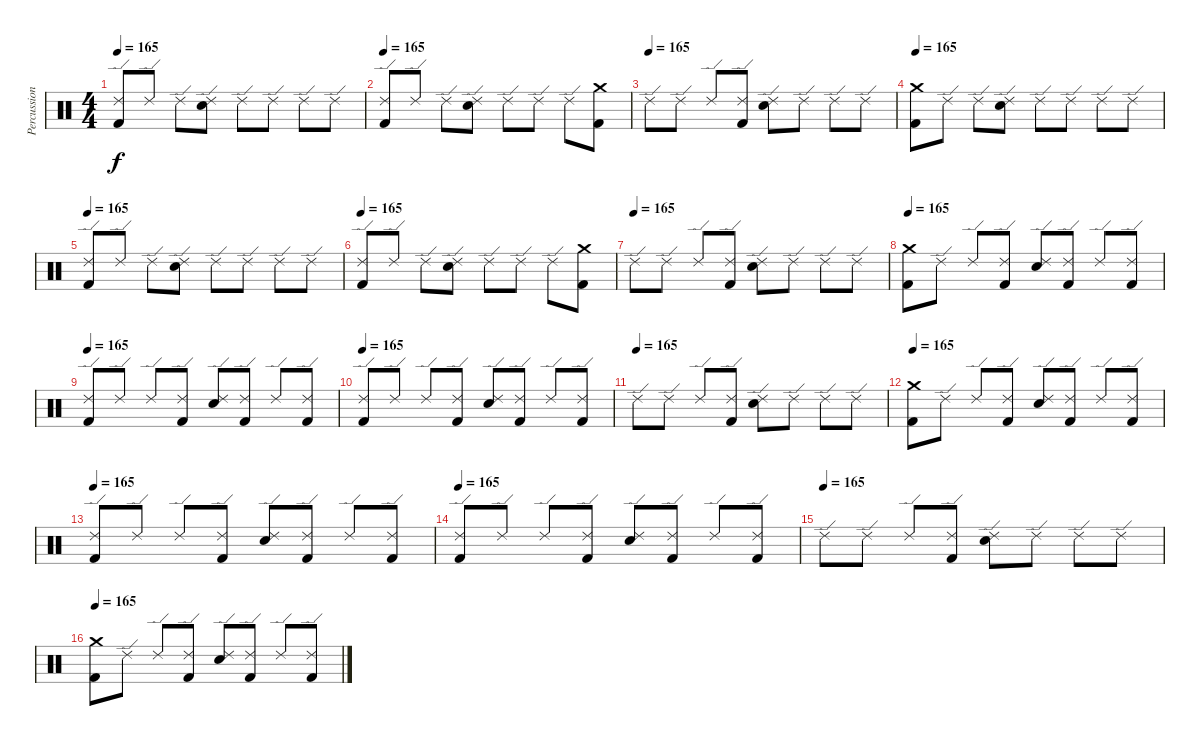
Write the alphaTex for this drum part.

\track ("Percussion" "Percussion") {instrument percussion}
\staff {score}
\articulation defaults
\ts (4 4)
\tempo 165
\clef neutral
\ks c
("Ride (edge) 2" "Kick (hit) 2").8{dy f} "Ride (edge) 2".8 "Ride (edge) 2".8 ("Ride (edge) 2" "Electric Snare (hit)").8 "Ride (edge) 2".8 "Ride (edge) 2".8 "Ride (edge) 2".8 "Ride (edge) 2".8 |
\tempo 165
("Ride (edge) 2" "Kick (hit) 2").8 "Ride (edge) 2".8 "Ride (edge) 2".8 ("Ride (edge) 2" "Electric Snare (hit)").8 "Ride (edge) 2".8 "Ride (edge) 2".8 "Ride (edge) 2".8 ("Crash medium (hit)" "Kick (hit) 2").8 |
\tempo (165)
"Ride (edge) 2".8 "Ride (edge) 2".8 "Ride (edge) 2".8 ("Ride (edge) 2" "Kick (hit) 2").8 ("Ride (edge) 2" "Electric Snare (hit)").8 "Ride (edge) 2".8 "Ride (edge) 2".8 "Ride (edge) 2".8 |
\tempo 165
("Crash medium (hit)" "Kick (hit) 2").8 "Ride (edge) 2".8 "Ride (edge) 2".8 ("Ride (edge) 2" "Electric Snare (hit)").8 "Ride (edge) 2".8 "Ride (edge) 2".8 "Ride (edge) 2".8 "Ride (edge) 2".8 |
\tempo 165
("Ride (edge) 2" "Kick (hit) 2").8 "Ride (edge) 2".8 "Ride (edge) 2".8 ("Ride (edge) 2" "Electric Snare (hit)").8 "Ride (edge) 2".8 "Ride (edge) 2".8 "Ride (edge) 2".8 "Ride (edge) 2".8 |
\tempo 165
("Ride (edge) 2" "Kick (hit) 2").8 "Ride (edge) 2".8 "Ride (edge) 2".8 ("Ride (edge) 2" "Electric Snare (hit)").8 "Ride (edge) 2".8 "Ride (edge) 2".8 "Ride (edge) 2".8 ("Crash medium (hit)" "Kick (hit) 2").8 |
\tempo (165)
"Ride (edge) 2".8 "Ride (edge) 2".8 "Ride (edge) 2".8 ("Ride (edge) 2" "Kick (hit) 2").8 ("Ride (edge) 2" "Electric Snare (hit)").8 "Ride (edge) 2".8 "Ride (edge) 2".8 "Ride (edge) 2".8 |
\tempo 165
("Crash medium (hit)" "Kick (hit) 2").8 "Ride (edge) 2".8 "Ride (edge) 2".8 ("Ride (edge) 2" "Kick (hit) 2").8 ("Ride (edge) 2" "Electric Snare (hit)").8 ("Ride (edge) 2" "Kick (hit) 2").8 "Ride (edge) 2".8 ("Ride (edge) 2" "Kick (hit) 2").8 |
\tempo 165
("Ride (edge) 2" "Kick (hit) 2").8 "Ride (edge) 2".8 "Ride (edge) 2".8 ("Ride (edge) 2" "Kick (hit) 2").8 ("Ride (edge) 2" "Electric Snare (hit)").8 ("Ride (edge) 2" "Kick (hit) 2").8 "Ride (edge) 2".8 ("Ride (edge) 2" "Kick (hit) 2").8 |
\tempo 165
("Ride (edge) 2" "Kick (hit) 2").8 "Ride (edge) 2".8 "Ride (edge) 2".8 ("Ride (edge) 2" "Kick (hit) 2").8 ("Ride (edge) 2" "Electric Snare (hit)").8 ("Ride (edge) 2" "Kick (hit) 2").8 "Ride (edge) 2".8 ("Ride (edge) 2" "Kick (hit) 2").8 |
\tempo (165)
"Ride (edge) 2".8 "Ride (edge) 2".8 "Ride (edge) 2".8 ("Ride (edge) 2" "Kick (hit) 2").8 ("Ride (edge) 2" "Electric Snare (hit)").8 "Ride (edge) 2".8 "Ride (edge) 2".8 "Ride (edge) 2".8 |
\tempo 165
("Crash medium (hit)" "Kick (hit) 2").8 "Ride (edge) 2".8 "Ride (edge) 2".8 ("Ride (edge) 2" "Kick (hit) 2").8 ("Ride (edge) 2" "Electric Snare (hit)").8 ("Ride (edge) 2" "Kick (hit) 2").8 "Ride (edge) 2".8 ("Ride (edge) 2" "Kick (hit) 2").8 |
\tempo 165
("Ride (edge) 2" "Kick (hit) 2").8 "Ride (edge) 2".8 "Ride (edge) 2".8 ("Ride (edge) 2" "Kick (hit) 2").8 ("Ride (edge) 2" "Electric Snare (hit)").8 ("Ride (edge) 2" "Kick (hit) 2").8 "Ride (edge) 2".8 ("Ride (edge) 2" "Kick (hit) 2").8 |
\tempo 165
("Ride (edge) 2" "Kick (hit) 2").8 "Ride (edge) 2".8 "Ride (edge) 2".8 ("Ride (edge) 2" "Kick (hit) 2").8 ("Ride (edge) 2" "Electric Snare (hit)").8 ("Ride (edge) 2" "Kick (hit) 2").8 "Ride (edge) 2".8 ("Ride (edge) 2" "Kick (hit) 2").8 |
\tempo (165)
"Ride (edge) 2".8 "Ride (edge) 2".8 "Ride (edge) 2".8 ("Ride (edge) 2" "Kick (hit) 2").8 ("Ride (edge) 2" "Electric Snare (hit)").8 "Ride (edge) 2".8 "Ride (edge) 2".8 "Ride (edge) 2".8 |
\tempo 165
("Crash medium (hit)" "Kick (hit) 2").8 "Ride (edge) 2".8 "Ride (edge) 2".8 ("Ride (edge) 2" "Kick (hit) 2").8 ("Ride (edge) 2" "Electric Snare (hit)").8 ("Ride (edge) 2" "Kick (hit) 2").8 "Ride (edge) 2".8 ("Ride (edge) 2" "Kick (hit) 2").8
